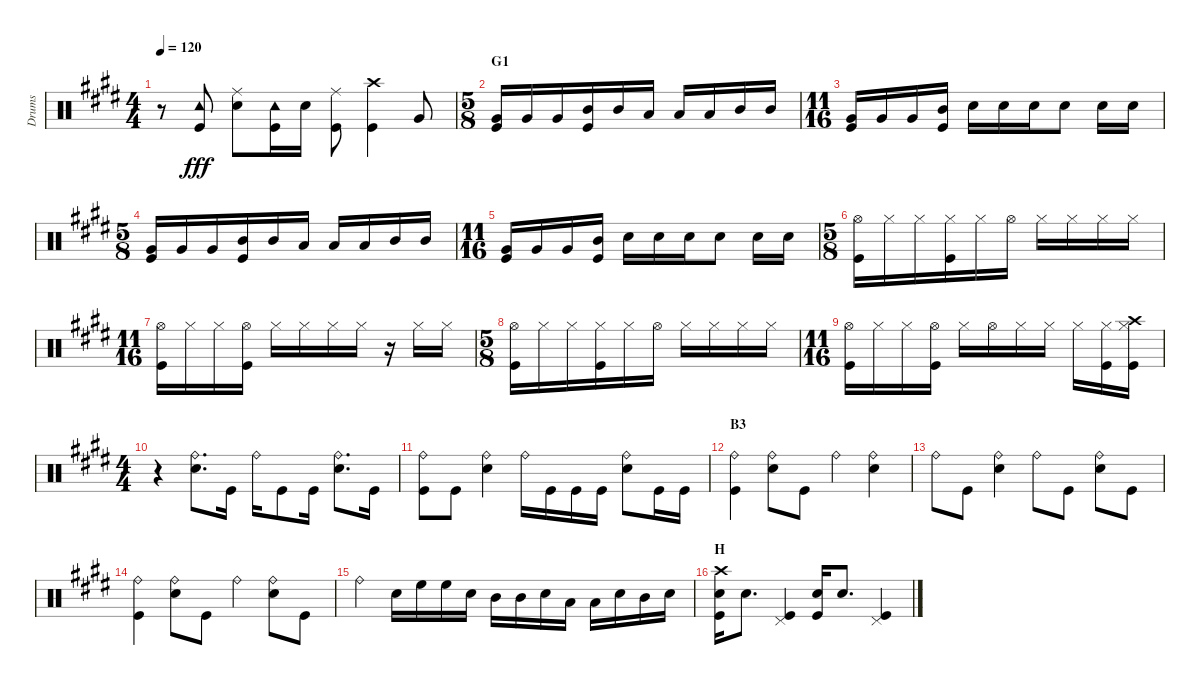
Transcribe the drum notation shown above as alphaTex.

\track ("Drums" "Drums") {instrument percussion}
\staff {score}
\articulation defaults
\ts (4 4)
\tempo 120
\clef neutral
\ks e
r.8{dy fff} ("Tambourine (hit)" "Kick (hit)").8 ("Ride (middle)" "Snare (hit) 2").8 ("Tambourine (hit)" "Kick (hit)").16 "Snare (hit) 2".16 ("Ride (middle)" "Kick (hit)").8 ("Crash high (hit)" "Kick (hit)").4 "Very Low Tom (hit)".8 |
\ts (5 8)
\section ("" "G1")
("Very Low Tom (hit)" "Kick (hit)").16 "Very Low Tom (hit)".16 "Very Low Tom (hit)".16 ("Mid Tom (hit)" "Kick (hit)").16 "Mid Tom (hit)".16 "Low Tom (hit)".16 "Low Tom (hit)".16 "Low Tom (hit)".16 "Mid Tom (hit)".16 "Mid Tom (hit)".16 |
\ts (11 16)
("Very Low Tom (hit)" "Kick (hit)").16 "Very Low Tom (hit)".16 "Very Low Tom (hit)".16 ("Mid Tom (hit)" "Kick (hit)").16 "Snare (hit) 2".16 "Snare (hit) 2".16 "Snare (hit) 2".16 "Snare (hit) 2".8 "Snare (hit) 2".16 "Snare (hit) 2".16 |
\ts (5 8)
("Very Low Tom (hit)" "Kick (hit)").16 "Very Low Tom (hit)".16 "Very Low Tom (hit)".16 ("Mid Tom (hit)" "Kick (hit)").16 "Mid Tom (hit)".16 "Low Tom (hit)".16 "Low Tom (hit)".16 "Low Tom (hit)".16 "Mid Tom (hit)".16 "Mid Tom (hit)".16 |
\ts (11 16)
("Very Low Tom (hit)" "Kick (hit)").16 "Very Low Tom (hit)".16 "Very Low Tom (hit)".16 ("Mid Tom (hit)" "Kick (hit)").16 "Snare (hit) 2".16 "Snare (hit) 2".16 "Snare (hit) 2".16 "Snare (hit) 2".8 "Snare (hit) 2".16 "Snare (hit) 2".16 |
\ts (5 8)
("Hi-Hat (open)" "Kick (hit)").16 "Hi-Hat (closed)".16 "Hi-Hat (closed)".16 ("Hi-Hat (closed)" "Kick (hit)").16 "Hi-Hat (closed)".16 "Hi-Hat (open)".16 "Hi-Hat (closed)".16 "Hi-Hat (closed)".16 "Hi-Hat (closed)".16 "Hi-Hat (closed)".16 |
\ts (11 16)
("Hi-Hat (open)" "Kick (hit)").16 "Hi-Hat (closed)".16 "Hi-Hat (closed)".16 ("Hi-Hat (open)" "Kick (hit)").16 "Hi-Hat (closed)".16 "Hi-Hat (closed)".16 "Hi-Hat (closed)".16 "Hi-Hat (closed)".16 r.16 "Hi-Hat (closed)".16 "Hi-Hat (closed)".16 |
\ts (5 8)
("Hi-Hat (open)" "Kick (hit)").16 "Hi-Hat (closed)".16 "Hi-Hat (closed)".16 ("Hi-Hat (closed)" "Kick (hit)").16 "Hi-Hat (closed)".16 "Hi-Hat (open)".16 "Hi-Hat (closed)".16 "Hi-Hat (closed)".16 "Hi-Hat (closed)".16 "Hi-Hat (closed)".16 |
\ts (11 16)
("Hi-Hat (open)" "Kick (hit)").16 "Hi-Hat (closed)".16 "Hi-Hat (closed)".16 ("Hi-Hat (open)" "Kick (hit)").16 "Hi-Hat (closed)".16 "Hi-Hat (open)".16 "Hi-Hat (closed)".16 "Hi-Hat (closed)".16 "Hi-Hat (closed)".16 ("Hi-Hat (closed)" "Kick (hit)").16 ("Hi-Hat (closed)" "Crash high (hit)" "Kick (hit)").16 |
\ts (4 4)
r.4 ("Ride (bell)" "Snare (hit) 2").8{d} "Kick (hit)".16 "Ride (bell)".16 "Kick (hit)".8 "Kick (hit)".16 ("Ride (bell)" "Snare (hit) 2").8{d} "Kick (hit)".16 |
("Ride (bell)" "Kick (hit)").8 "Kick (hit)".8 ("Ride (bell)" "Snare (hit) 2").4 "Ride (bell)".16 "Kick (hit)".16 "Kick (hit)".16 "Kick (hit)".16 ("Ride (bell)" "Snare (hit) 2").8 "Kick (hit)".16 "Kick (hit)".16 |
\section ("" "B3")
("Ride (bell)" "Kick (hit)").4 ("Ride (bell)" "Snare (hit) 2").8 "Kick (hit)".8 "Ride (bell)".4 ("Ride (bell)" "Snare (hit) 2").4 |
"Ride (bell)".8 "Kick (hit)".8 ("Ride (bell)" "Snare (hit) 2").4 "Ride (bell)".8 "Kick (hit)".8 ("Ride (bell)" "Snare (hit) 2").8 "Kick (hit)".8 |
("Ride (bell)" "Kick (hit)").4 ("Ride (bell)" "Snare (hit) 2").8 "Kick (hit)".8 "Ride (bell)".4 ("Ride (bell)" "Snare (hit) 2").8 "Kick (hit)".8 |
"Ride (bell)".4 "Snare (hit) 2".16 "High Floor Tom (hit)".16 "High Floor Tom (hit)".16 "Snare (hit) 2".16 "Mid Tom (hit)".16 "Mid Tom (hit)".16 "Snare (hit) 2".16 "Low Tom (hit)".16 "Low Tom (hit)".16 "Snare (hit) 2".16 "Mid Tom (hit)".16 "Snare (hit) 2".16 |
\section ("" "H")
("Crash high (hit)" "Snare (hit) 2" "Kick (hit)").16 "Snare (hit) 2".8{d} ("Pedal Hi-Hat (hit)" "Kick (hit)").4 ("Snare (hit) 2" "Kick (hit)").16 "Snare (hit) 2".8{d} ("Pedal Hi-Hat (hit)" "Kick (hit)").4
